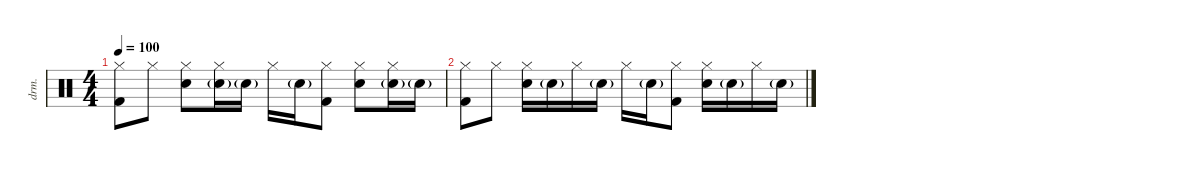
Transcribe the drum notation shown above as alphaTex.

\defaultSystemsLayout 4
\hideDynamics
\bracketExtendMode nobrackets
\track ("Drumkit" "drm.") {instrument percussion}
\staff {score}
\articulation defaults
\ts (4 4)
\tempo 100
\clef neutral
\ks c
("Hi-Hat (closed)" "Kick (hit) 2").8{dy mf beam Down} "Hi-Hat (closed)".8{beam Down} ("Hi-Hat (closed)" "Snare (hit) 2").8{beam Down} ("Hi-Hat (closed)" "Snare (hit) 2"{g}).16{beam Down} "Snare (hit) 2"{g}.16{beam Down} "Hi-Hat (closed)".16{beam Down} "Snare (hit) 2"{g}.16{beam Down} ("Hi-Hat (closed)" "Kick (hit) 2").8{beam Down} ("Hi-Hat (closed)" "Snare (hit) 2").8{beam Down} ("Hi-Hat (closed)" "Snare (hit) 2"{g}).16{beam Down} "Snare (hit) 2"{g}.16{beam Down} |
("Hi-Hat (closed)" "Kick (hit) 2").8{beam Down} "Hi-Hat (closed)".8{beam Down} ("Hi-Hat (closed)" "Snare (hit) 2").16{beam Down} "Snare (hit) 2"{g}.16{beam Down} "Hi-Hat (closed)".16{beam Down} "Snare (hit) 2"{g}.16{beam Down} "Hi-Hat (closed)".16{beam Down} "Snare (hit) 2"{g}.16{beam Down} ("Hi-Hat (closed)" "Kick (hit) 2").8{beam Down} ("Hi-Hat (closed)" "Snare (hit) 2").16{beam Down} "Snare (hit) 2"{g}.16{beam Down} "Hi-Hat (closed)".16{beam Down} "Snare (hit) 2"{g}.16{beam Down}
